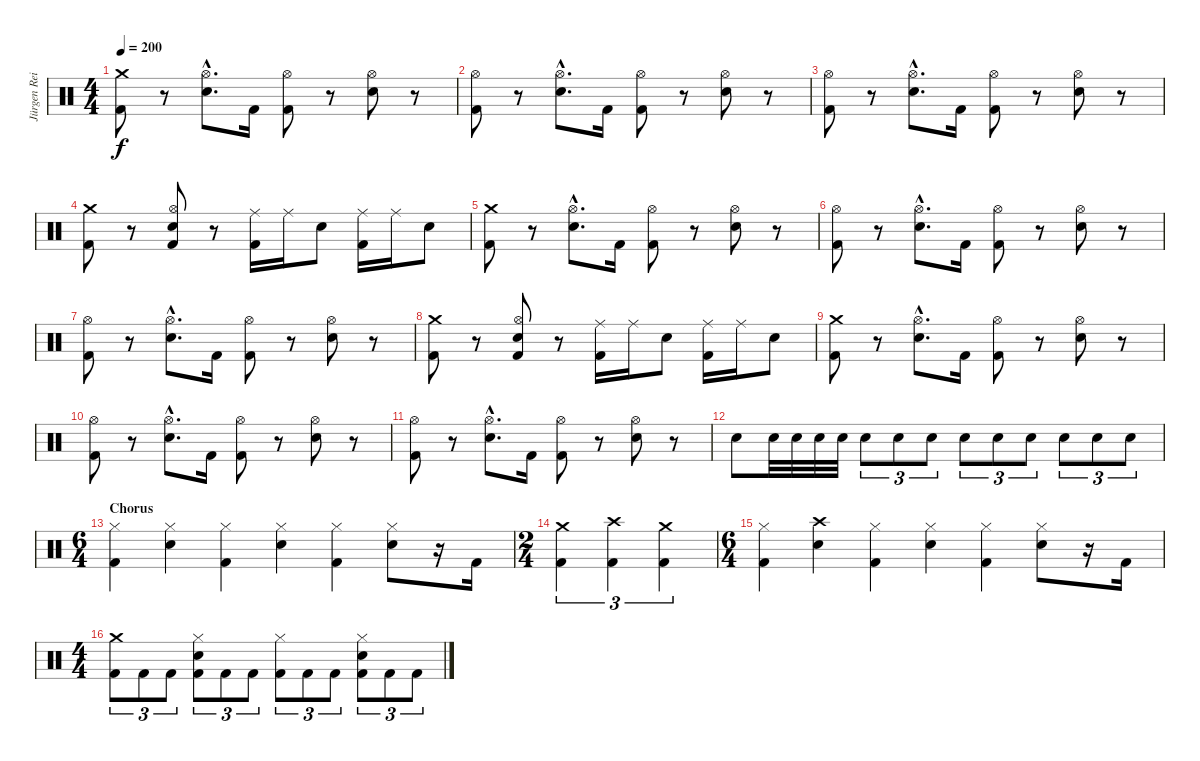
\track ("Jürgen Reil" "Jürgen Rei") {instrument percussion}
\staff {score}
\articulation defaults
\ts (4 4)
\tempo 200
\clef neutral
\ks c
("Crash medium (hit)" "Kick (hit) 2").8{dy f} r.8 ("Hi-Hat (open)"{hac} "Electric Snare (hit)"{hac}).8{d} "Kick (hit) 2".16 ("Hi-Hat (open)" "Kick (hit) 2").8 r.8 ("Hi-Hat (open)" "Electric Snare (hit)").8 r.8 |
("Hi-Hat (open)" "Kick (hit) 2").8 r.8 ("Hi-Hat (open)"{hac} "Electric Snare (hit)"{hac}).8{d} "Kick (hit) 2".16 ("Hi-Hat (open)" "Kick (hit) 2").8 r.8 ("Hi-Hat (open)" "Electric Snare (hit)").8 r.8 |
("Hi-Hat (open)" "Kick (hit) 2").8 r.8 ("Hi-Hat (open)"{hac} "Electric Snare (hit)"{hac}).8{d} "Kick (hit) 2".16 ("Hi-Hat (open)" "Kick (hit) 2").8 r.8 ("Hi-Hat (open)" "Electric Snare (hit)").8 r.8 |
("Crash medium (hit)" "Kick (hit) 2").8 r.8 ("Hi-Hat (open)" "Electric Snare (hit)" "Kick (hit) 2").8 r.8 ("Ride (middle)" "Kick (hit) 2").16 "Ride (middle)".16 "Electric Snare (hit)".8 ("Ride (middle)" "Kick (hit) 2").16 "Ride (middle)".16 "Electric Snare (hit)".8 |
("Crash medium (hit)" "Kick (hit) 2").8 r.8 ("Hi-Hat (open)"{hac} "Electric Snare (hit)"{hac}).8{d} "Kick (hit) 2".16 ("Hi-Hat (open)" "Kick (hit) 2").8 r.8 ("Hi-Hat (open)" "Electric Snare (hit)").8 r.8 |
("Hi-Hat (open)" "Kick (hit) 2").8 r.8 ("Hi-Hat (open)"{hac} "Electric Snare (hit)"{hac}).8{d} "Kick (hit) 2".16 ("Hi-Hat (open)" "Kick (hit) 2").8 r.8 ("Hi-Hat (open)" "Electric Snare (hit)").8 r.8 |
("Hi-Hat (open)" "Kick (hit) 2").8 r.8 ("Hi-Hat (open)"{hac} "Electric Snare (hit)"{hac}).8{d} "Kick (hit) 2".16 ("Hi-Hat (open)" "Kick (hit) 2").8 r.8 ("Hi-Hat (open)" "Electric Snare (hit)").8 r.8 |
("Crash medium (hit)" "Kick (hit) 2").8 r.8 ("Hi-Hat (open)" "Electric Snare (hit)" "Kick (hit) 2").8 r.8 ("Ride (middle)" "Kick (hit) 2").16 "Ride (middle)".16 "Electric Snare (hit)".8 ("Ride (middle)" "Kick (hit) 2").16 "Ride (middle)".16 "Electric Snare (hit)".8 |
("Crash medium (hit)" "Kick (hit) 2").8 r.8 ("Hi-Hat (open)"{hac} "Electric Snare (hit)"{hac}).8{d} "Kick (hit) 2".16 ("Hi-Hat (open)" "Kick (hit) 2").8 r.8 ("Hi-Hat (open)" "Electric Snare (hit)").8 r.8 |
("Hi-Hat (open)" "Kick (hit) 2").8 r.8 ("Hi-Hat (open)"{hac} "Electric Snare (hit)"{hac}).8{d} "Kick (hit) 2".16 ("Hi-Hat (open)" "Kick (hit) 2").8 r.8 ("Hi-Hat (open)" "Electric Snare (hit)").8 r.8 |
("Hi-Hat (open)" "Kick (hit) 2").8 r.8 ("Hi-Hat (open)"{hac} "Electric Snare (hit)"{hac}).8{d} "Kick (hit) 2".16 ("Hi-Hat (open)" "Kick (hit) 2").8 r.8 ("Hi-Hat (open)" "Electric Snare (hit)").8 r.8 |
"Electric Snare (hit)".8 "Electric Snare (hit)".32 "Electric Snare (hit)".32 "Electric Snare (hit)".32 "Electric Snare (hit)".32 "Electric Snare (hit)".8{tu (3 2)} "Electric Snare (hit)".8{tu (3 2)} "Electric Snare (hit)".8{tu (3 2)} "Electric Snare (hit)".8{tu (3 2)} "Electric Snare (hit)".8{tu (3 2)} "Electric Snare (hit)".8{tu (3 2)} "Electric Snare (hit)".8{tu (3 2)} "Electric Snare (hit)".8{tu (3 2)} "Electric Snare (hit)".8{tu (3 2)} |
\ts (6 4)
\section ("" "Chorus")
("Hi-Hat (closed)" "Kick (hit) 2").4 ("Hi-Hat (closed)" "Electric Snare (hit)").4 ("Hi-Hat (closed)" "Kick (hit) 2").4 ("Hi-Hat (closed)" "Electric Snare (hit)").4 ("Hi-Hat (closed)" "Kick (hit) 2").4 ("Hi-Hat (closed)" "Electric Snare (hit)").8 r.16 "Kick (hit) 2".16 |
\ts (2 4)
("Crash medium (hit)" "Kick (hit) 2").4{tu (3 2)} ("Crash high (hit)" "Kick (hit) 2").4{tu (3 2)} ("Crash medium (hit)" "Kick (hit) 2").4{tu (3 2)} |
\ts (6 4)
("Hi-Hat (closed)" "Kick (hit) 2").4 ("Crash high (hit)" "Electric Snare (hit)").4 ("Hi-Hat (closed)" "Kick (hit) 2").4 ("Hi-Hat (closed)" "Electric Snare (hit)").4 ("Hi-Hat (closed)" "Kick (hit) 2").4 ("Hi-Hat (closed)" "Electric Snare (hit)").8 r.16 "Kick (hit) 2".16 |
\ts (4 4)
("Crash medium (hit)" "Kick (hit) 2").8{tu (3 2)} "Kick (hit) 2".8{tu (3 2)} "Kick (hit) 2".8{tu (3 2)} ("Hi-Hat (closed)" "Electric Snare (hit)" "Kick (hit) 2").8{tu (3 2)} "Kick (hit) 2".8{tu (3 2)} "Kick (hit) 2".8{tu (3 2)} ("Hi-Hat (closed)" "Kick (hit) 2").8{tu (3 2)} "Kick (hit) 2".8{tu (3 2)} "Kick (hit) 2".8{tu (3 2)} ("Hi-Hat (closed)" "Electric Snare (hit)" "Kick (hit) 2").8{tu (3 2)} "Kick (hit) 2".8{tu (3 2)} "Kick (hit) 2".8{tu (3 2)}
